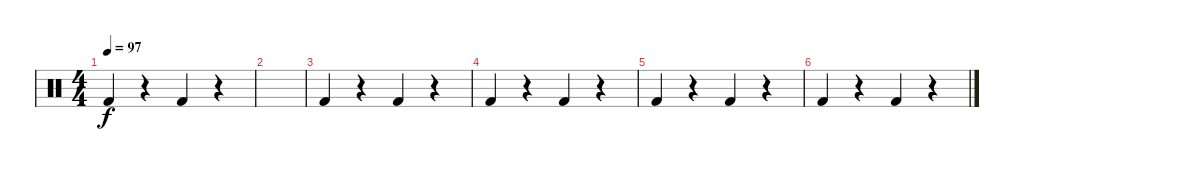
\track "" {instrument percussion}
\staff {score}
\articulation defaults
\ts (4 4)
\tempo 97
\clef neutral
\ks c "Kick (hit) 2".4{dy f}
r.4 "Kick (hit) 2".4 r.4 |
|
"Kick (hit) 2".4 r.4 "Kick (hit) 2".4 r.4 |
"Kick (hit) 2".4 r.4 "Kick (hit) 2".4 r.4 |
"Kick (hit) 2".4 r.4 "Kick (hit) 2".4 r.4 |
"Kick (hit) 2".4 r.4 "Kick (hit) 2".4 r.4
